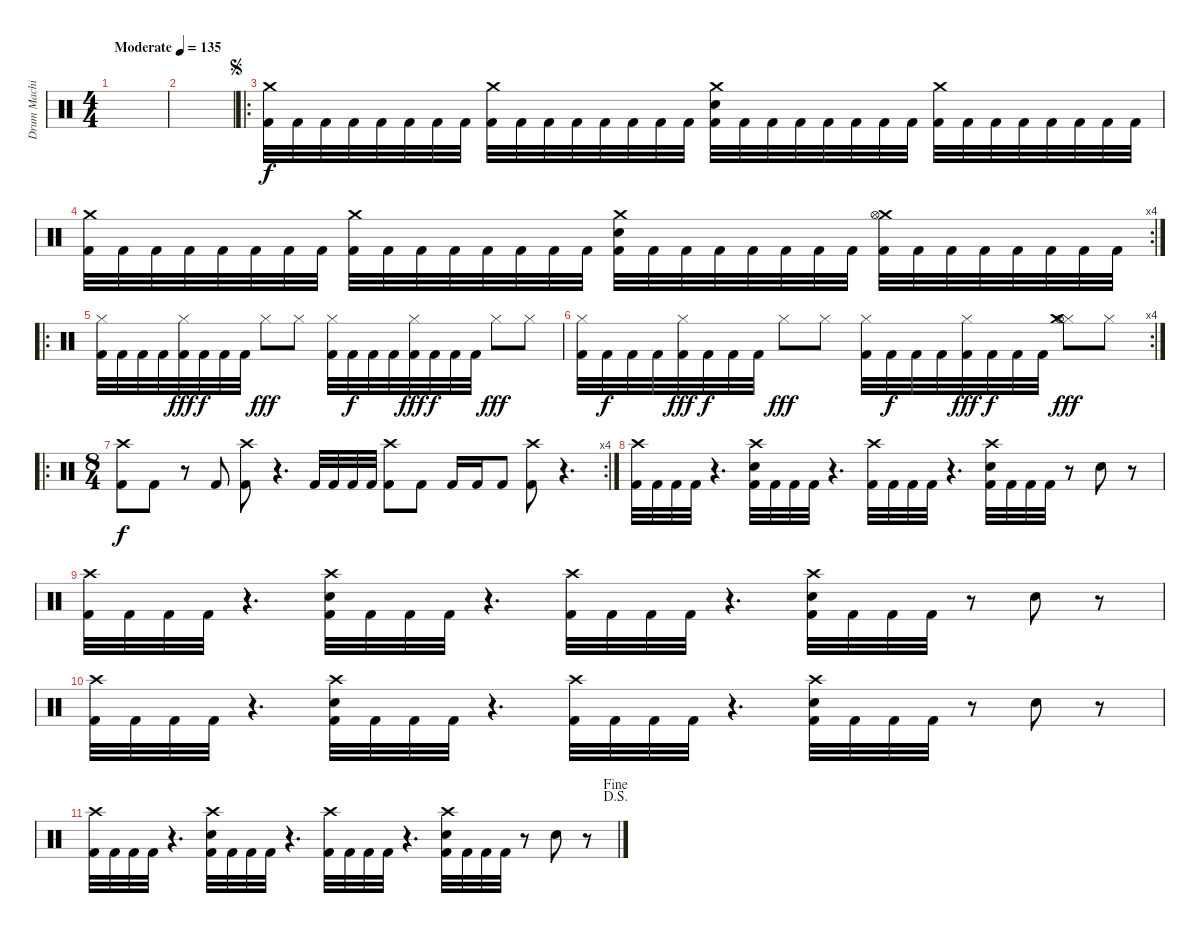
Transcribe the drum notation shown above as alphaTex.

\track ("Drum Machine" "Drum Machi") {instrument percussion}
\staff {score}
\articulation defaults
\ts (4 4)
\tempo (135 "Moderate")
\clef neutral
\ks c
|
|
\ro
\jump segno
("Crash medium (hit)" "Kick (hit) 2").32 "Kick (hit) 2".32 "Kick (hit) 2".32 "Kick (hit) 2".32 "Kick (hit) 2".32 "Kick (hit) 2".32 "Kick (hit) 2".32 "Kick (hit) 2".32 ("Crash medium (hit)" "Kick (hit) 2").32 "Kick (hit) 2".32 "Kick (hit) 2".32 "Kick (hit) 2".32 "Kick (hit) 2".32 "Kick (hit) 2".32 "Kick (hit) 2".32 "Kick (hit) 2".32 ("Crash medium (hit)" "Snare (hit) 2" "Kick (hit) 2").32 "Kick (hit) 2".32 "Kick (hit) 2".32 "Kick (hit) 2".32 "Kick (hit) 2".32 "Kick (hit) 2".32 "Kick (hit) 2".32 "Kick (hit) 2".32 ("Crash medium (hit)" "Kick (hit) 2").32 "Kick (hit) 2".32 "Kick (hit) 2".32 "Kick (hit) 2".32 "Kick (hit) 2".32 "Kick (hit) 2".32 "Kick (hit) 2".32 "Kick (hit) 2".32 |
\rc 4
("Crash medium (hit)" "Kick (hit) 2").32 "Kick (hit) 2".32 "Kick (hit) 2".32 "Kick (hit) 2".32 "Kick (hit) 2".32 "Kick (hit) 2".32 "Kick (hit) 2".32 "Kick (hit) 2".32 ("Crash medium (hit)" "Kick (hit) 2").32 "Kick (hit) 2".32 "Kick (hit) 2".32 "Kick (hit) 2".32 "Kick (hit) 2".32 "Kick (hit) 2".32 "Kick (hit) 2".32 "Kick (hit) 2".32 ("Crash medium (hit)" "Snare (hit) 2" "Kick (hit) 2").32 "Kick (hit) 2".32 "Kick (hit) 2".32 "Kick (hit) 2".32 "Kick (hit) 2".32 "Kick (hit) 2".32 "Kick (hit) 2".32 "Kick (hit) 2".32 ("Crash medium (hit)" "Hi-Hat (open)" "Kick (hit) 2").32 "Kick (hit) 2".32 "Kick (hit) 2".32 "Kick (hit) 2".32 "Kick (hit) 2".32 "Kick (hit) 2".32 "Kick (hit) 2".32 "Kick (hit) 2".32 |
\ro
("Hi-Hat (closed)" "Kick (hit) 2").32 "Kick (hit) 2".32{dy f} "Kick (hit) 2".32 "Kick (hit) 2".32 ("Hi-Hat (closed)" "Kick (hit) 2").32{dy fff} "Kick (hit) 2".32{dy f} "Kick (hit) 2".32 "Kick (hit) 2".32 "Hi-Hat (closed)".8{dy fff} "Hi-Hat (closed)".8 ("Hi-Hat (closed)" "Kick (hit) 2").32 "Kick (hit) 2".32{dy f} "Kick (hit) 2".32 "Kick (hit) 2".32 ("Hi-Hat (closed)" "Kick (hit) 2").32{dy fff} "Kick (hit) 2".32{dy f} "Kick (hit) 2".32 "Kick (hit) 2".32 "Hi-Hat (closed)".8{dy fff} "Hi-Hat (closed)".8 |
\rc 4
("Hi-Hat (closed)" "Kick (hit) 2").32 "Kick (hit) 2".32{dy f} "Kick (hit) 2".32 "Kick (hit) 2".32 ("Hi-Hat (closed)" "Kick (hit) 2").32{dy fff} "Kick (hit) 2".32{dy f} "Kick (hit) 2".32 "Kick (hit) 2".32 "Hi-Hat (closed)".8{dy fff} "Hi-Hat (closed)".8 ("Hi-Hat (closed)" "Kick (hit) 2").32 "Kick (hit) 2".32{dy f} "Kick (hit) 2".32 "Kick (hit) 2".32 ("Hi-Hat (closed)" "Kick (hit) 2").32{dy fff} "Kick (hit) 2".32{dy f} "Kick (hit) 2".32 "Kick (hit) 2".32 ("Hi-Hat (closed)" "Crash medium (hit)" "Hi-Hat (open)").8{dy fff} "Hi-Hat (closed)".8 |
\ro
\rc 4
\ts (8 4)
("Crash high (hit)" "Kick (hit) 2").8{dy f} "Kick (hit) 2".8 r.8 "Kick (hit) 2".8 ("Crash high (hit)" "Kick (hit) 2").8 r.4{d tu (3 2)} "Kick (hit) 2".32 "Kick (hit) 2".32 "Kick (hit) 2".32 "Kick (hit) 2".32 ("Crash high (hit)" "Kick (hit) 2").8 "Kick (hit) 2".8 "Kick (hit) 2".16 "Kick (hit) 2".16 "Kick (hit) 2".8 ("Crash high (hit)" "Kick (hit) 2").8 r.4{d} |
("Crash high (hit)" "Kick (hit) 2").32 "Kick (hit) 2".32 "Kick (hit) 2".32 "Kick (hit) 2".32 r.4{d} ("Crash high (hit)" "Snare (hit) 2" "Kick (hit) 2").32 "Kick (hit) 2".32 "Kick (hit) 2".32 "Kick (hit) 2".32 r.4{d} ("Crash high (hit)" "Kick (hit) 2").32 "Kick (hit) 2".32 "Kick (hit) 2".32 "Kick (hit) 2".32 r.4{d} ("Crash high (hit)" "Snare (hit) 2" "Kick (hit) 2").32 "Kick (hit) 2".32 "Kick (hit) 2".32 "Kick (hit) 2".32 r.8 "Snare (hit) 2".8 r.8 |
("Crash high (hit)" "Kick (hit) 2").32 "Kick (hit) 2".32 "Kick (hit) 2".32 "Kick (hit) 2".32 r.4{d} ("Crash high (hit)" "Snare (hit) 2" "Kick (hit) 2").32 "Kick (hit) 2".32 "Kick (hit) 2".32 "Kick (hit) 2".32 r.4{d} ("Crash high (hit)" "Kick (hit) 2").32 "Kick (hit) 2".32 "Kick (hit) 2".32 "Kick (hit) 2".32 r.4{d} ("Crash high (hit)" "Snare (hit) 2" "Kick (hit) 2").32 "Kick (hit) 2".32 "Kick (hit) 2".32 "Kick (hit) 2".32 r.8 "Snare (hit) 2".8 r.8 |
("Crash high (hit)" "Kick (hit) 2").32 "Kick (hit) 2".32 "Kick (hit) 2".32 "Kick (hit) 2".32 r.4{d} ("Crash high (hit)" "Snare (hit) 2" "Kick (hit) 2").32 "Kick (hit) 2".32 "Kick (hit) 2".32 "Kick (hit) 2".32 r.4{d} ("Crash high (hit)" "Kick (hit) 2").32 "Kick (hit) 2".32 "Kick (hit) 2".32 "Kick (hit) 2".32 r.4{d} ("Crash high (hit)" "Snare (hit) 2" "Kick (hit) 2").32 "Kick (hit) 2".32 "Kick (hit) 2".32 "Kick (hit) 2".32 r.8 "Snare (hit) 2".8 r.8 |
\jump fine
\jump dalsegno
("Crash high (hit)" "Kick (hit) 2").32 "Kick (hit) 2".32 "Kick (hit) 2".32 "Kick (hit) 2".32 r.4{d} ("Crash high (hit)" "Snare (hit) 2" "Kick (hit) 2").32 "Kick (hit) 2".32 "Kick (hit) 2".32 "Kick (hit) 2".32 r.4{d} ("Crash high (hit)" "Kick (hit) 2").32 "Kick (hit) 2".32 "Kick (hit) 2".32 "Kick (hit) 2".32 r.4{d} ("Crash high (hit)" "Snare (hit) 2" "Kick (hit) 2").32 "Kick (hit) 2".32 "Kick (hit) 2".32 "Kick (hit) 2".32 r.8 "Snare (hit) 2".8 r.8
